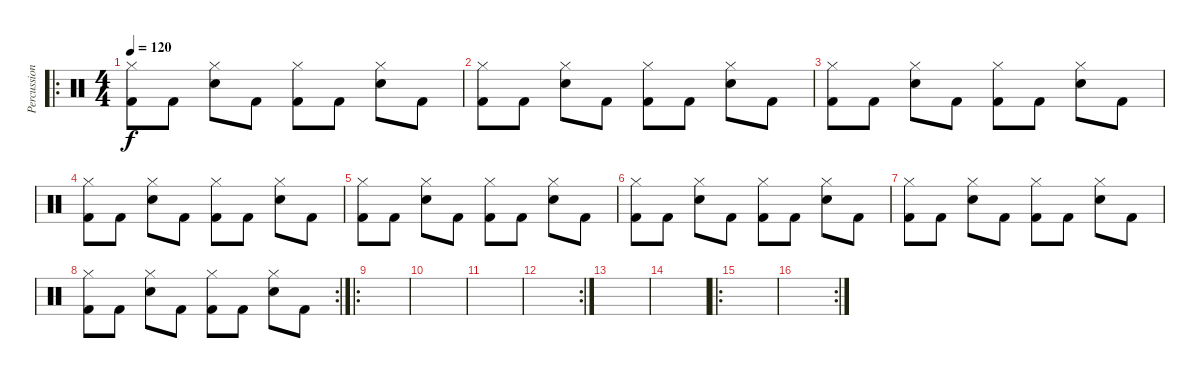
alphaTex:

\track ("Percussions" "Percussion") {instrument percussion}
\staff {score}
\articulation defaults
\ro
\ts (4 4)
\tempo 120
\clef neutral
\ks c
("Hi-Hat (closed)" "Kick (hit) 2").8{dy f} "Kick (hit) 2".8 ("Hi-Hat (closed)" "Snare (hit) 2").8 "Kick (hit) 2".8 ("Hi-Hat (closed)" "Kick (hit) 2").8 "Kick (hit) 2".8 ("Hi-Hat (closed)" "Snare (hit) 2").8 "Kick (hit) 2".8 |
("Hi-Hat (closed)" "Kick (hit) 2").8 "Kick (hit) 2".8 ("Hi-Hat (closed)" "Snare (hit) 2").8 "Kick (hit) 2".8 ("Hi-Hat (closed)" "Kick (hit) 2").8 "Kick (hit) 2".8 ("Hi-Hat (closed)" "Snare (hit) 2").8 "Kick (hit) 2".8 |
("Hi-Hat (closed)" "Kick (hit) 2").8 "Kick (hit) 2".8 ("Hi-Hat (closed)" "Snare (hit) 2").8 "Kick (hit) 2".8 ("Hi-Hat (closed)" "Kick (hit) 2").8 "Kick (hit) 2".8 ("Hi-Hat (closed)" "Snare (hit) 2").8 "Kick (hit) 2".8 |
("Hi-Hat (closed)" "Kick (hit) 2").8 "Kick (hit) 2".8 ("Hi-Hat (closed)" "Snare (hit) 2").8 "Kick (hit) 2".8 ("Hi-Hat (closed)" "Kick (hit) 2").8 "Kick (hit) 2".8 ("Hi-Hat (closed)" "Snare (hit) 2").8 "Kick (hit) 2".8 |
("Hi-Hat (closed)" "Kick (hit) 2").8 "Kick (hit) 2".8 ("Hi-Hat (closed)" "Snare (hit) 2").8 "Kick (hit) 2".8 ("Hi-Hat (closed)" "Kick (hit) 2").8 "Kick (hit) 2".8 ("Hi-Hat (closed)" "Snare (hit) 2").8 "Kick (hit) 2".8 |
("Hi-Hat (closed)" "Kick (hit) 2").8 "Kick (hit) 2".8 ("Hi-Hat (closed)" "Snare (hit) 2").8 "Kick (hit) 2".8 ("Hi-Hat (closed)" "Kick (hit) 2").8 "Kick (hit) 2".8 ("Hi-Hat (closed)" "Snare (hit) 2").8 "Kick (hit) 2".8 |
("Hi-Hat (closed)" "Kick (hit) 2").8 "Kick (hit) 2".8 ("Hi-Hat (closed)" "Snare (hit) 2").8 "Kick (hit) 2".8 ("Hi-Hat (closed)" "Kick (hit) 2").8 "Kick (hit) 2".8 ("Hi-Hat (closed)" "Snare (hit) 2").8 "Kick (hit) 2".8 |
\rc 2
("Hi-Hat (closed)" "Kick (hit) 2").8 "Kick (hit) 2".8 ("Hi-Hat (closed)" "Snare (hit) 2").8 "Kick (hit) 2".8 ("Hi-Hat (closed)" "Kick (hit) 2").8 "Kick (hit) 2".8 ("Hi-Hat (closed)" "Snare (hit) 2").8 "Kick (hit) 2".8 |
\ro
|
|
|
\rc 2
|
|
|
\ro
|
\rc 2
